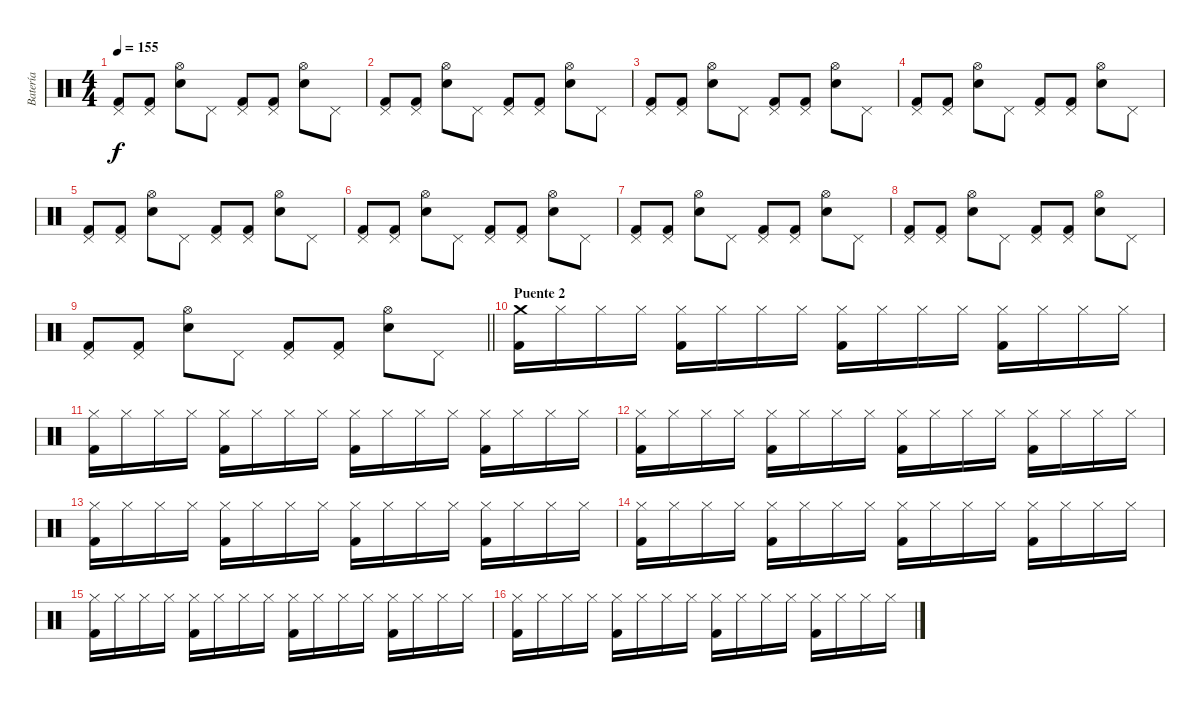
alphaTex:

\track ("Batería" "Batería") {instrument percussion}
\staff {score}
\articulation defaults
\ts (4 4)
\tempo 155
\clef neutral
\ks c
("Pedal Hi-Hat (hit)" "Kick (hit) 2").8{dy f} ("Pedal Hi-Hat (hit)" "Kick (hit) 2").8 ("Hi-Hat (open)" "Snare (hit) 2").8 "Pedal Hi-Hat (hit)".8 ("Pedal Hi-Hat (hit)" "Kick (hit) 2").8 ("Pedal Hi-Hat (hit)" "Kick (hit) 2").8 ("Hi-Hat (open)" "Snare (hit) 2").8 "Pedal Hi-Hat (hit)".8 |
("Pedal Hi-Hat (hit)" "Kick (hit) 2").8 ("Pedal Hi-Hat (hit)" "Kick (hit) 2").8 ("Hi-Hat (open)" "Snare (hit) 2").8 "Pedal Hi-Hat (hit)".8 ("Pedal Hi-Hat (hit)" "Kick (hit) 2").8 ("Pedal Hi-Hat (hit)" "Kick (hit) 2").8 ("Hi-Hat (open)" "Snare (hit) 2").8 "Pedal Hi-Hat (hit)".8 |
("Pedal Hi-Hat (hit)" "Kick (hit) 2").8 ("Pedal Hi-Hat (hit)" "Kick (hit) 2").8 ("Hi-Hat (open)" "Snare (hit) 2").8 "Pedal Hi-Hat (hit)".8 ("Pedal Hi-Hat (hit)" "Kick (hit) 2").8 ("Pedal Hi-Hat (hit)" "Kick (hit) 2").8 ("Hi-Hat (open)" "Snare (hit) 2").8 "Pedal Hi-Hat (hit)".8 |
("Pedal Hi-Hat (hit)" "Kick (hit) 2").8 ("Pedal Hi-Hat (hit)" "Kick (hit) 2").8 ("Hi-Hat (open)" "Snare (hit) 2").8 "Pedal Hi-Hat (hit)".8 ("Pedal Hi-Hat (hit)" "Kick (hit) 2").8 ("Pedal Hi-Hat (hit)" "Kick (hit) 2").8 ("Hi-Hat (open)" "Snare (hit) 2").8 "Pedal Hi-Hat (hit)".8 |
("Pedal Hi-Hat (hit)" "Kick (hit) 2").8 ("Pedal Hi-Hat (hit)" "Kick (hit) 2").8 ("Hi-Hat (open)" "Snare (hit) 2").8 "Pedal Hi-Hat (hit)".8 ("Pedal Hi-Hat (hit)" "Kick (hit) 2").8 ("Pedal Hi-Hat (hit)" "Kick (hit) 2").8 ("Hi-Hat (open)" "Snare (hit) 2").8 "Pedal Hi-Hat (hit)".8 |
("Pedal Hi-Hat (hit)" "Kick (hit) 2").8 ("Pedal Hi-Hat (hit)" "Kick (hit) 2").8 ("Hi-Hat (open)" "Snare (hit) 2").8 "Pedal Hi-Hat (hit)".8 ("Pedal Hi-Hat (hit)" "Kick (hit) 2").8 ("Pedal Hi-Hat (hit)" "Kick (hit) 2").8 ("Hi-Hat (open)" "Snare (hit) 2").8 "Pedal Hi-Hat (hit)".8 |
("Pedal Hi-Hat (hit)" "Kick (hit) 2").8 ("Pedal Hi-Hat (hit)" "Kick (hit) 2").8 ("Hi-Hat (open)" "Snare (hit) 2").8 "Pedal Hi-Hat (hit)".8 ("Pedal Hi-Hat (hit)" "Kick (hit) 2").8 ("Pedal Hi-Hat (hit)" "Kick (hit) 2").8 ("Hi-Hat (open)" "Snare (hit) 2").8 "Pedal Hi-Hat (hit)".8 |
("Pedal Hi-Hat (hit)" "Kick (hit) 2").8 ("Pedal Hi-Hat (hit)" "Kick (hit) 2").8 ("Hi-Hat (open)" "Snare (hit) 2").8 "Pedal Hi-Hat (hit)".8 ("Pedal Hi-Hat (hit)" "Kick (hit) 2").8 ("Pedal Hi-Hat (hit)" "Kick (hit) 2").8 ("Hi-Hat (open)" "Snare (hit) 2").8 "Pedal Hi-Hat (hit)".8 |
\barLineRight lightlight
("Pedal Hi-Hat (hit)" "Kick (hit) 2").8 ("Pedal Hi-Hat (hit)" "Kick (hit) 2").8 ("Hi-Hat (open)" "Snare (hit) 2").8 "Pedal Hi-Hat (hit)".8 ("Pedal Hi-Hat (hit)" "Kick (hit) 2").8 ("Pedal Hi-Hat (hit)" "Kick (hit) 2").8 ("Hi-Hat (open)" "Snare (hit) 2").8 "Pedal Hi-Hat (hit)".8 |
\section ("" "Puente 2")
("Crash medium (hit)" "Kick (hit) 2").16 "Hi-Hat (closed)".16 "Hi-Hat (closed)".16 "Hi-Hat (closed)".16 ("Hi-Hat (closed)" "Kick (hit) 2").16 "Hi-Hat (closed)".16 "Hi-Hat (closed)".16 "Hi-Hat (closed)".16 ("Hi-Hat (closed)" "Kick (hit) 2").16 "Hi-Hat (closed)".16 "Hi-Hat (closed)".16 "Hi-Hat (closed)".16 ("Hi-Hat (closed)" "Kick (hit) 2").16 "Hi-Hat (closed)".16 "Hi-Hat (closed)".16 "Hi-Hat (closed)".16 |
("Hi-Hat (closed)" "Kick (hit) 2").16 "Hi-Hat (closed)".16 "Hi-Hat (closed)".16 "Hi-Hat (closed)".16 ("Hi-Hat (closed)" "Kick (hit) 2").16 "Hi-Hat (closed)".16 "Hi-Hat (closed)".16 "Hi-Hat (closed)".16 ("Hi-Hat (closed)" "Kick (hit) 2").16 "Hi-Hat (closed)".16 "Hi-Hat (closed)".16 "Hi-Hat (closed)".16 ("Hi-Hat (closed)" "Kick (hit) 2").16 "Hi-Hat (closed)".16 "Hi-Hat (closed)".16 "Hi-Hat (closed)".16 |
("Hi-Hat (closed)" "Kick (hit) 2").16 "Hi-Hat (closed)".16 "Hi-Hat (closed)".16 "Hi-Hat (closed)".16 ("Hi-Hat (closed)" "Kick (hit) 2").16 "Hi-Hat (closed)".16 "Hi-Hat (closed)".16 "Hi-Hat (closed)".16 ("Hi-Hat (closed)" "Kick (hit) 2").16 "Hi-Hat (closed)".16 "Hi-Hat (closed)".16 "Hi-Hat (closed)".16 ("Hi-Hat (closed)" "Kick (hit) 2").16 "Hi-Hat (closed)".16 "Hi-Hat (closed)".16 "Hi-Hat (closed)".16 |
("Hi-Hat (closed)" "Kick (hit) 2").16 "Hi-Hat (closed)".16 "Hi-Hat (closed)".16 "Hi-Hat (closed)".16 ("Hi-Hat (closed)" "Kick (hit) 2").16 "Hi-Hat (closed)".16 "Hi-Hat (closed)".16 "Hi-Hat (closed)".16 ("Hi-Hat (closed)" "Kick (hit) 2").16 "Hi-Hat (closed)".16 "Hi-Hat (closed)".16 "Hi-Hat (closed)".16 ("Hi-Hat (closed)" "Kick (hit) 2").16 "Hi-Hat (closed)".16 "Hi-Hat (closed)".16 "Hi-Hat (closed)".16 |
("Hi-Hat (closed)" "Kick (hit) 2").16 "Hi-Hat (closed)".16 "Hi-Hat (closed)".16 "Hi-Hat (closed)".16 ("Hi-Hat (closed)" "Kick (hit) 2").16 "Hi-Hat (closed)".16 "Hi-Hat (closed)".16 "Hi-Hat (closed)".16 ("Hi-Hat (closed)" "Kick (hit) 2").16 "Hi-Hat (closed)".16 "Hi-Hat (closed)".16 "Hi-Hat (closed)".16 ("Hi-Hat (closed)" "Kick (hit) 2").16 "Hi-Hat (closed)".16 "Hi-Hat (closed)".16 "Hi-Hat (closed)".16 |
("Hi-Hat (closed)" "Kick (hit) 2").16 "Hi-Hat (closed)".16 "Hi-Hat (closed)".16 "Hi-Hat (closed)".16 ("Hi-Hat (closed)" "Kick (hit) 2").16 "Hi-Hat (closed)".16 "Hi-Hat (closed)".16 "Hi-Hat (closed)".16 ("Hi-Hat (closed)" "Kick (hit) 2").16 "Hi-Hat (closed)".16 "Hi-Hat (closed)".16 "Hi-Hat (closed)".16 ("Hi-Hat (closed)" "Kick (hit) 2").16 "Hi-Hat (closed)".16 "Hi-Hat (closed)".16 "Hi-Hat (closed)".16 |
("Hi-Hat (closed)" "Kick (hit) 2").16 "Hi-Hat (closed)".16 "Hi-Hat (closed)".16 "Hi-Hat (closed)".16 ("Hi-Hat (closed)" "Kick (hit) 2").16 "Hi-Hat (closed)".16 "Hi-Hat (closed)".16 "Hi-Hat (closed)".16 ("Hi-Hat (closed)" "Kick (hit) 2").16 "Hi-Hat (closed)".16 "Hi-Hat (closed)".16 "Hi-Hat (closed)".16 ("Hi-Hat (closed)" "Kick (hit) 2").16 "Hi-Hat (closed)".16 "Hi-Hat (closed)".16 "Hi-Hat (closed)".16
